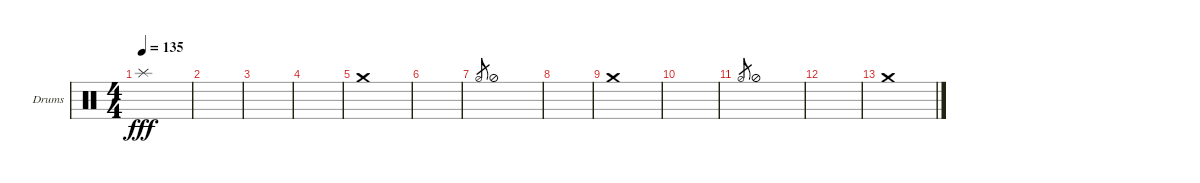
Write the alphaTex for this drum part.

\defaultSystemsLayout 4
\bracketExtendMode groupsimilarinstruments
\firstSystemTrackNameOrientation horizontal
\otherSystemsTrackNameOrientation horizontal
\track ("Helders" "Drums") {instrument percussion}
\staff {score}
\articulation defaults
\ts (4 4)
\tempo 135
\clef neutral
\ks c "Splash (hit)".1{dy fff}
|
|
|
|
"Crash medium (hit)".1 |
|
"Hi-Hat (half)".8{gr} "Hi-Hat (half)".1 |
|
"Crash medium (hit)".1 |
|
"Hi-Hat (half)".8{gr} "Hi-Hat (half)".1 |
|
"Crash medium (hit)".1
